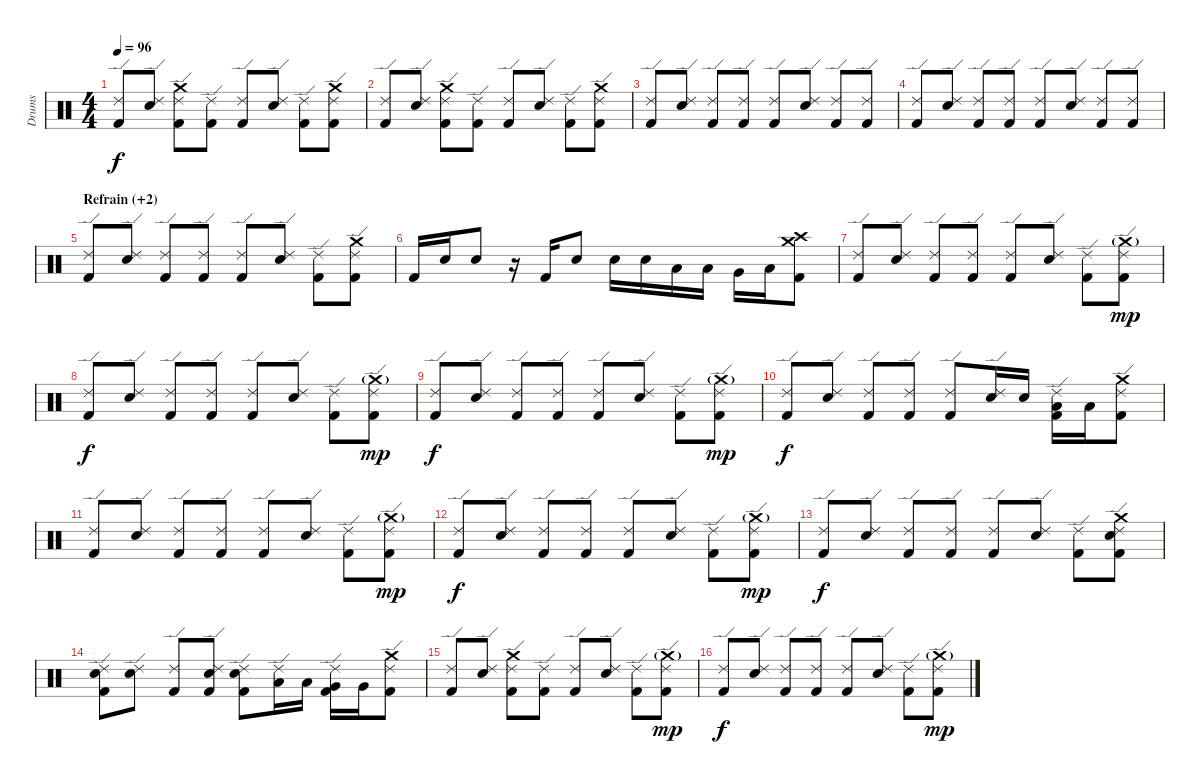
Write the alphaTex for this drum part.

\track ("Drums" "Drums") {instrument percussion}
\staff {score}
\articulation defaults
\ts (4 4)
\tempo 96
\clef neutral
\ks c
("Ride (edge) 2" "Kick (hit) 2").8{dy f} ("Ride (edge) 2" "Snare (hit) 2").8 ("Crash medium (hit)" "Ride (edge) 2" "Kick (hit) 2").8 ("Ride (edge) 2" "Kick (hit) 2").8 ("Ride (edge) 2" "Kick (hit) 2").8 ("Ride (edge) 2" "Snare (hit) 2").8 ("Ride (edge) 2" "Kick (hit) 2").8 ("Crash medium (hit)" "Ride (edge) 2" "Kick (hit) 2").8 |
("Ride (edge) 2" "Kick (hit) 2").8 ("Ride (edge) 2" "Snare (hit) 2").8 ("Crash medium (hit)" "Ride (edge) 2" "Kick (hit) 2").8 ("Ride (edge) 2" "Kick (hit) 2").8 ("Ride (edge) 2" "Kick (hit) 2").8 ("Ride (edge) 2" "Snare (hit) 2").8 ("Ride (edge) 2" "Kick (hit) 2").8 ("Crash medium (hit)" "Ride (edge) 2" "Kick (hit) 2").8 |
("Ride (edge) 2" "Kick (hit) 2").8 ("Ride (edge) 2" "Snare (hit) 2").8 ("Ride (edge) 2" "Kick (hit) 2").8 ("Ride (edge) 2" "Kick (hit) 2").8 ("Ride (edge) 2" "Kick (hit) 2").8 ("Ride (edge) 2" "Snare (hit) 2").8 ("Ride (edge) 2" "Kick (hit) 2").8 ("Ride (edge) 2" "Kick (hit) 2").8 |
("Ride (edge) 2" "Kick (hit) 2").8 ("Ride (edge) 2" "Snare (hit) 2").8 ("Ride (edge) 2" "Kick (hit) 2").8 ("Ride (edge) 2" "Kick (hit) 2").8 ("Ride (edge) 2" "Kick (hit) 2").8 ("Ride (edge) 2" "Snare (hit) 2").8 ("Ride (edge) 2" "Kick (hit) 2").8 ("Ride (edge) 2" "Kick (hit) 2").8 |
\section ("" "Refrain (+2)")
("Ride (edge) 2" "Kick (hit) 2").8 ("Ride (edge) 2" "Snare (hit) 2").8 ("Ride (edge) 2" "Kick (hit) 2").8 ("Ride (edge) 2" "Kick (hit) 2").8 ("Ride (edge) 2" "Kick (hit) 2").8 ("Ride (edge) 2" "Snare (hit) 2").8 ("Ride (edge) 2" "Kick (hit) 2").8 ("Crash medium (hit)" "Ride (edge) 2" "Kick (hit) 2").8 |
"Kick (hit) 2".16 "Snare (hit) 2".16 "Snare (hit) 2".8 r.16 "Kick (hit) 2".16 "Snare (hit) 2".8 "Snare (hit) 2".16 "Snare (hit) 2".16 "Low Tom (hit)".16 "Low Tom (hit)".16 "Very Low Tom (hit)".16 "Low Floor Tom (hit)".16 ("Crash medium (hit)" "Crash high (hit)" "Kick (hit) 2").8 |
("Ride (edge) 2" "Kick (hit) 2").8 ("Ride (edge) 2" "Snare (hit) 2").8 ("Ride (edge) 2" "Kick (hit) 2").8 ("Ride (edge) 2" "Kick (hit) 2").8 ("Ride (edge) 2" "Kick (hit) 2").8 ("Ride (edge) 2" "Snare (hit) 2").8 ("Ride (edge) 2" "Kick (hit) 2").8 ("Crash medium (hit)"{g} "Ride (edge) 2" "Kick (hit) 2").8{dy mp} |
("Ride (edge) 2" "Kick (hit) 2").8{dy f} ("Ride (edge) 2" "Snare (hit) 2").8 ("Ride (edge) 2" "Kick (hit) 2").8 ("Ride (edge) 2" "Kick (hit) 2").8 ("Ride (edge) 2" "Kick (hit) 2").8 ("Ride (edge) 2" "Snare (hit) 2").8 ("Ride (edge) 2" "Kick (hit) 2").8 ("Crash medium (hit)"{g} "Ride (edge) 2" "Kick (hit) 2").8{dy mp} |
("Ride (edge) 2" "Kick (hit) 2").8{dy f} ("Ride (edge) 2" "Snare (hit) 2").8 ("Ride (edge) 2" "Kick (hit) 2").8 ("Ride (edge) 2" "Kick (hit) 2").8 ("Ride (edge) 2" "Kick (hit) 2").8 ("Ride (edge) 2" "Snare (hit) 2").8 ("Ride (edge) 2" "Kick (hit) 2").8 ("Crash medium (hit)"{g} "Ride (edge) 2" "Kick (hit) 2").8{dy mp} |
("Ride (edge) 2" "Kick (hit) 2").8{dy f} ("Ride (edge) 2" "Snare (hit) 2").8 ("Ride (edge) 2" "Kick (hit) 2").8 ("Ride (edge) 2" "Kick (hit) 2").8 ("Ride (edge) 2" "Kick (hit) 2").8 ("Ride (edge) 2" "Snare (hit) 2").16 "Snare (hit) 2".16 ("Ride (edge) 2" "Low Tom (hit)" "Kick (hit) 2").16 "Low Tom (hit)".16 ("Crash medium (hit)" "Ride (edge) 2" "Kick (hit) 2").8 |
("Ride (edge) 2" "Kick (hit) 2").8 ("Ride (edge) 2" "Snare (hit) 2").8 ("Ride (edge) 2" "Kick (hit) 2").8 ("Ride (edge) 2" "Kick (hit) 2").8 ("Ride (edge) 2" "Kick (hit) 2").8 ("Ride (edge) 2" "Snare (hit) 2").8 ("Ride (edge) 2" "Kick (hit) 2").8 ("Crash medium (hit)"{g} "Ride (edge) 2" "Kick (hit) 2").8{dy mp} |
("Ride (edge) 2" "Kick (hit) 2").8{dy f} ("Ride (edge) 2" "Snare (hit) 2").8 ("Ride (edge) 2" "Kick (hit) 2").8 ("Ride (edge) 2" "Kick (hit) 2").8 ("Ride (edge) 2" "Kick (hit) 2").8 ("Ride (edge) 2" "Snare (hit) 2").8 ("Ride (edge) 2" "Kick (hit) 2").8 ("Crash medium (hit)"{g} "Ride (edge) 2" "Kick (hit) 2").8{dy mp} |
("Ride (edge) 2" "Kick (hit) 2").8{dy f} ("Ride (edge) 2" "Snare (hit) 2").8 ("Ride (edge) 2" "Kick (hit) 2").8 ("Ride (edge) 2" "Kick (hit) 2").8 ("Ride (edge) 2" "Kick (hit) 2").8 ("Ride (edge) 2" "Snare (hit) 2").8 ("Ride (edge) 2" "Kick (hit) 2").8 ("Crash medium (hit)" "Ride (edge) 2" "Snare (hit) 2" "Kick (hit) 2").8 |
("Ride (edge) 2" "Snare (hit) 2" "Kick (hit) 2").8 ("Ride (edge) 2" "Snare (hit) 2").8 ("Ride (edge) 2" "Kick (hit) 2").8 ("Ride (edge) 2" "Snare (hit) 2" "Kick (hit) 2").8 ("Ride (edge) 2" "Snare (hit) 2" "Kick (hit) 2").8 ("Ride (edge) 2" "Low Tom (hit)").16 "Low Tom (hit)".16 ("Ride (edge) 2" "Very Low Tom (hit)" "Kick (hit) 2").16 "Very Low Tom (hit)".16 ("Crash medium (hit)" "Ride (edge) 2" "Kick (hit) 2").8 |
("Ride (edge) 2" "Kick (hit) 2").8 ("Ride (edge) 2" "Snare (hit) 2").8 ("Crash medium (hit)" "Ride (edge) 2" "Kick (hit) 2").8 ("Ride (edge) 2" "Kick (hit) 2").8 ("Ride (edge) 2" "Kick (hit) 2").8 ("Ride (edge) 2" "Snare (hit) 2").8 ("Ride (edge) 2" "Kick (hit) 2").8 ("Crash medium (hit)"{g} "Ride (edge) 2" "Kick (hit) 2").8{dy mp} |
("Ride (edge) 2" "Kick (hit) 2").8{dy f} ("Ride (edge) 2" "Snare (hit) 2").8 ("Ride (edge) 2" "Kick (hit) 2").8 ("Ride (edge) 2" "Kick (hit) 2").8 ("Ride (edge) 2" "Kick (hit) 2").8 ("Ride (edge) 2" "Snare (hit) 2").8 ("Ride (edge) 2" "Kick (hit) 2").8 ("Crash medium (hit)"{g} "Ride (edge) 2" "Kick (hit) 2").8{dy mp}
